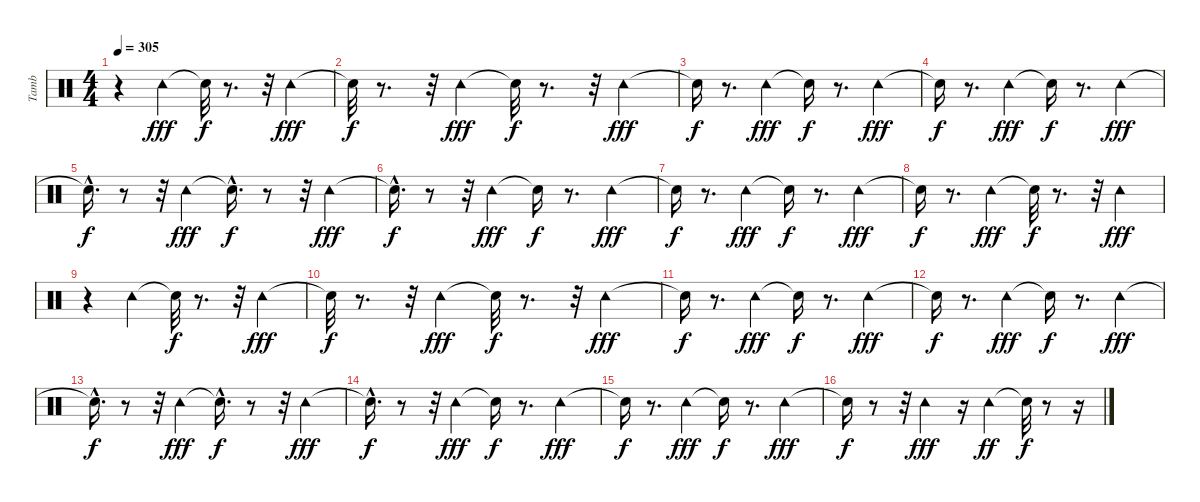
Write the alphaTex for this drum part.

\track ("Tamb" "Tamb") {instrument percussion}
\staff {score}
\articulation defaults
\ts (4 4)
\tempo 305
\clef neutral
\ks c
r.4{dy fff} "Tambourine (hit)".4 "Snare (hit)"{t}.32{dy f} r.8{d} r.32 "Tambourine (hit)".4{dy fff} |
"Snare (hit)"{t}.32{dy f} r.8{d} r.32 "Tambourine (hit)".4{dy fff} "Snare (hit)"{t}.32{dy f} r.8{d} r.32 "Tambourine (hit)".4{dy fff} |
"Snare (hit)"{t}.16{dy f} r.8{d} "Tambourine (hit)".4{dy fff} "Snare (hit)"{t}.16{dy f} r.8{d} "Tambourine (hit)".4{dy fff} |
"Snare (hit)"{t}.16{dy f} r.8{d} "Tambourine (hit)".4{dy fff} "Snare (hit)"{t}.16{dy f} r.8{d} "Tambourine (hit)".4{dy fff} |
"Snare (hit)"{hac t}.16{d dy f} r.8 r.32 "Tambourine (hit)".4{dy fff} "Snare (hit)"{hac t}.16{d dy f} r.8 r.32 "Tambourine (hit)".4{dy fff} |
"Snare (hit)"{hac t}.16{d dy f} r.8 r.32 "Tambourine (hit)".4{dy fff} "Snare (hit)"{t}.16{dy f} r.8{d} "Tambourine (hit)".4{dy fff} |
"Snare (hit)"{t}.16{dy f} r.8{d} "Tambourine (hit)".4{dy fff} "Snare (hit)"{t}.16{dy f} r.8{d} "Tambourine (hit)".4{dy fff} |
"Snare (hit)"{t}.16{dy f} r.8{d} "Tambourine (hit)".4{dy fff} "Snare (hit)"{t}.32{dy f} r.8{d} r.32 "Tambourine (hit)".4{dy fff} |
r.4 "Tambourine (hit)".4 "Snare (hit)"{t}.32{dy f} r.8{d} r.32 "Tambourine (hit)".4{dy fff} |
"Snare (hit)"{t}.32{dy f} r.8{d} r.32 "Tambourine (hit)".4{dy fff} "Snare (hit)"{t}.32{dy f} r.8{d} r.32 "Tambourine (hit)".4{dy fff} |
"Snare (hit)"{t}.16{dy f} r.8{d} "Tambourine (hit)".4{dy fff} "Snare (hit)"{t}.16{dy f} r.8{d} "Tambourine (hit)".4{dy fff} |
"Snare (hit)"{t}.16{dy f} r.8{d} "Tambourine (hit)".4{dy fff} "Snare (hit)"{t}.16{dy f} r.8{d} "Tambourine (hit)".4{dy fff} |
"Snare (hit)"{hac t}.16{d dy f} r.8 r.32 "Tambourine (hit)".4{dy fff} "Snare (hit)"{hac t}.16{d dy f} r.8 r.32 "Tambourine (hit)".4{dy fff} |
"Snare (hit)"{hac t}.16{d dy f} r.8 r.32 "Tambourine (hit)".4{dy fff} "Snare (hit)"{t}.16{dy f} r.8{d} "Tambourine (hit)".4{dy fff} |
"Snare (hit)"{t}.16{dy f} r.8{d} "Tambourine (hit)".4{dy fff} "Snare (hit)"{t}.16{dy f} r.8{d} "Tambourine (hit)".4{dy fff} |
"Snare (hit)"{t}.16{dy f} r.8 r.32 "Tambourine (hit)".4{dy fff} r.16 "Tambourine (hit)".4{dy ff} "Snare (hit)"{t}.32{dy f} r.8 r.16
